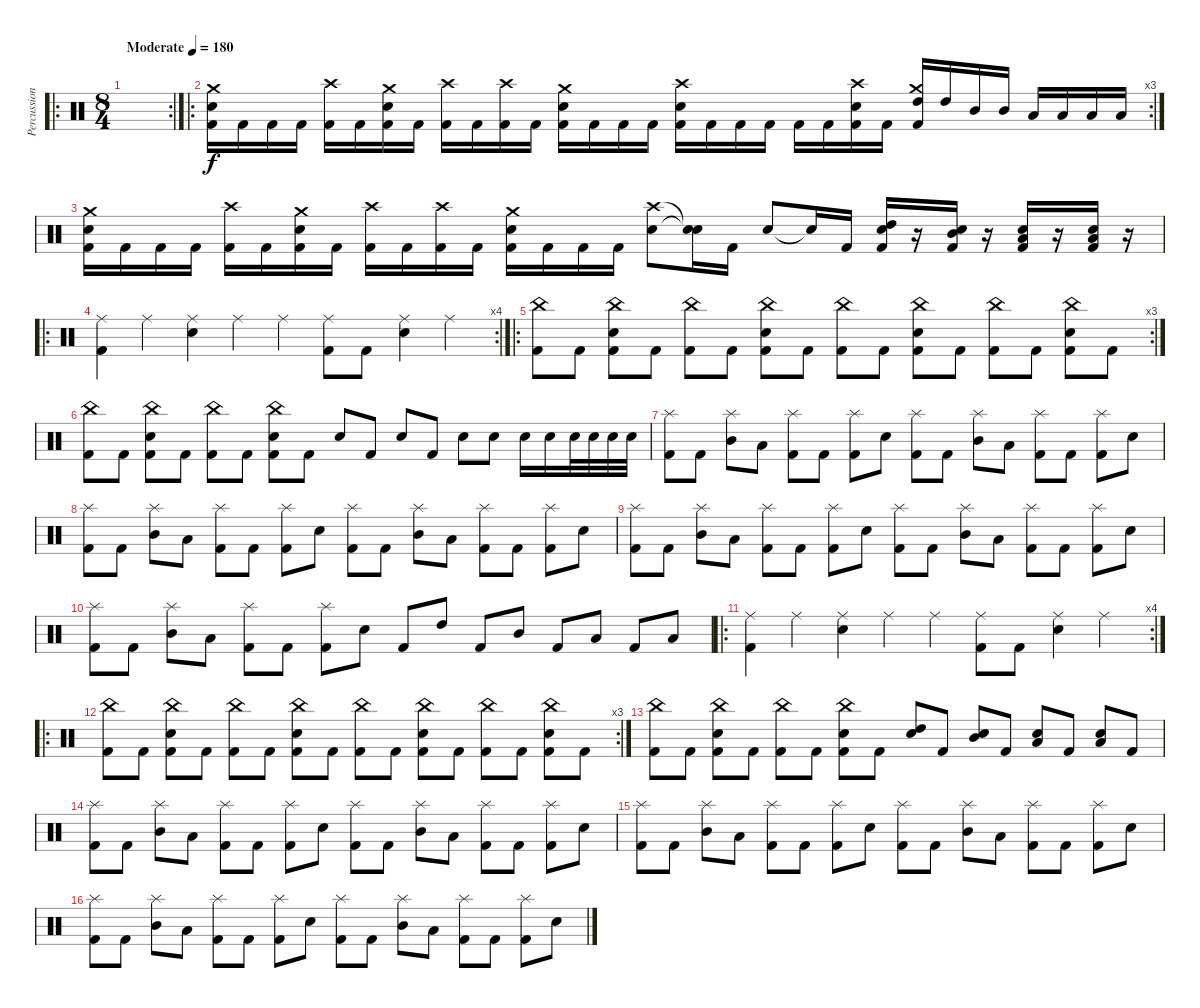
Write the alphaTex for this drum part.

\track ("Percussion" "Percussion") {instrument percussion}
\staff {score}
\articulation defaults
\ro
\rc 2
\ts (8 4)
\tempo (180 "Moderate")
\clef neutral
\ks c
|
\ro
\rc 3
("Kick (hit) 2" "Electric Snare (hit)" "Crash medium (hit)").16 "Kick (hit) 2".16 "Kick (hit) 2".16 "Kick (hit) 2".16 ("Kick (hit) 2" "Crash high (hit)").16 "Kick (hit) 2".16 ("Kick (hit) 2" "Electric Snare (hit)" "Crash medium (hit)").16 "Kick (hit) 2".16 ("Kick (hit) 2" "Crash high (hit)").16 "Kick (hit) 2".16 ("Kick (hit) 2" "Crash high (hit)").16 "Kick (hit) 2".16 ("Kick (hit) 2" "Electric Snare (hit)" "Crash medium (hit)").16 "Kick (hit) 2".16 "Kick (hit) 2".16 "Kick (hit) 2".16 ("Kick (hit) 2" "Electric Snare (hit)" "Crash high (hit)").16 "Kick (hit) 2".16 "Kick (hit) 2".16 "Kick (hit) 2".16 "Kick (hit) 2".16 "Kick (hit) 2".16 ("Kick (hit) 2" "Electric Snare (hit)" "Crash high (hit)").16 "Kick (hit) 2".16 ("Kick (hit) 2" "High Tom (hit)" "Crash medium (hit)").16 "High Tom (hit)".16 "Mid Tom (hit)".16 "Mid Tom (hit)".16 "Low Tom (hit)".16 "Low Tom (hit)".16 "Low Floor Tom (hit)".16 "Low Floor Tom (hit)".16 |
("Kick (hit) 2" "Electric Snare (hit)" "Crash medium (hit)").16 "Kick (hit) 2".16 "Kick (hit) 2".16 "Kick (hit) 2".16 ("Kick (hit) 2" "Crash high (hit)").16 "Kick (hit) 2".16 ("Kick (hit) 2" "Electric Snare (hit)" "Crash medium (hit)").16 "Kick (hit) 2".16 ("Kick (hit) 2" "Crash high (hit)").16 "Kick (hit) 2".16 ("Kick (hit) 2" "Crash high (hit)").16 "Kick (hit) 2".16 ("Kick (hit) 2" "Electric Snare (hit)" "Crash medium (hit)").16 "Kick (hit) 2".16 "Kick (hit) 2".16 "Kick (hit) 2".16 ("Electric Snare (hit)" "Crash high (hit)").8 ("Snare (hit)"{t} "Snare (hit)"{t}).16 "Kick (hit) 2".16 "Electric Snare (hit)".8 "Snare (hit)"{t}.16 "Kick (hit) 2".16 ("Kick (hit) 2" "Electric Snare (hit)" "High Tom (hit)").16 r.16 ("Kick (hit) 2" "Electric Snare (hit)" "Mid Tom (hit)").16 r.16 ("Kick (hit) 2" "Electric Snare (hit)" "Low Tom (hit)").16 r.16 ("Kick (hit) 2" "Electric Snare (hit)" "Low Floor Tom (hit)").16 r.16 |
\ro
\rc 4
("Kick (hit) 2" "Ride (middle)").4 "Ride (middle)".4 ("Electric Snare (hit)" "Ride (middle)").4 "Ride (middle)".4 "Ride (middle)".4 ("Kick (hit) 2" "Ride (middle)").8 "Kick (hit) 2".8 ("Electric Snare (hit)" "Ride (middle)").4 "Ride (middle)".4 |
\ro
\rc 3
("Kick (hit) 2" "China (hit)").8 "Kick (hit) 2".8 ("Kick (hit) 2" "Electric Snare (hit)" "China (hit)").8 "Kick (hit) 2".8 ("Kick (hit) 2" "China (hit)").8 "Kick (hit) 2".8 ("Kick (hit) 2" "Electric Snare (hit)" "China (hit)").8 "Kick (hit) 2".8 ("Kick (hit) 2" "China (hit)").8 "Kick (hit) 2".8 ("Kick (hit) 2" "Electric Snare (hit)" "China (hit)").8 "Kick (hit) 2".8 ("Kick (hit) 2" "China (hit)").8 "Kick (hit) 2".8 ("Kick (hit) 2" "Electric Snare (hit)" "China (hit)").8 "Kick (hit) 2".8 |
("Kick (hit) 2" "China (hit)").8 "Kick (hit) 2".8 ("Kick (hit) 2" "Electric Snare (hit)" "China (hit)").8 "Kick (hit) 2".8 ("Kick (hit) 2" "China (hit)").8 "Kick (hit) 2".8 ("Kick (hit) 2" "Electric Snare (hit)" "China (hit)").8 "Kick (hit) 2".8 "Electric Snare (hit)".8 "Kick (hit) 2".8 "Electric Snare (hit)".8 "Kick (hit) 2".8 "Electric Snare (hit)".8 "Electric Snare (hit)".8 "Electric Snare (hit)".16 "Electric Snare (hit)".16 "Electric Snare (hit)".32 "Electric Snare (hit)".32 "Electric Snare (hit)".32 "Electric Snare (hit)".32 |
("Kick (hit) 2" "Splash (hit)").8 "Kick (hit) 2".8 ("Mid Tom (hit)" "Splash (hit)").8 "Low Tom (hit)".8 ("Kick (hit) 2" "Splash (hit)").8 "Kick (hit) 2".8 ("Kick (hit) 2" "Splash (hit)").8 "Electric Snare (hit)".8 ("Kick (hit) 2" "Splash (hit)").8 "Kick (hit) 2".8 ("Mid Tom (hit)" "Splash (hit)").8 "Low Tom (hit)".8 ("Kick (hit) 2" "Splash (hit)").8 "Kick (hit) 2".8 ("Kick (hit) 2" "Splash (hit)").8 "Electric Snare (hit)".8 |
("Kick (hit) 2" "Splash (hit)").8 "Kick (hit) 2".8 ("Mid Tom (hit)" "Splash (hit)").8 "Low Tom (hit)".8 ("Kick (hit) 2" "Splash (hit)").8 "Kick (hit) 2".8 ("Kick (hit) 2" "Splash (hit)").8 "Electric Snare (hit)".8 ("Kick (hit) 2" "Splash (hit)").8 "Kick (hit) 2".8 ("Mid Tom (hit)" "Splash (hit)").8 "Low Tom (hit)".8 ("Kick (hit) 2" "Splash (hit)").8 "Kick (hit) 2".8 ("Kick (hit) 2" "Splash (hit)").8 "Electric Snare (hit)".8 |
("Kick (hit) 2" "Splash (hit)").8 "Kick (hit) 2".8 ("Mid Tom (hit)" "Splash (hit)").8 "Low Tom (hit)".8 ("Kick (hit) 2" "Splash (hit)").8 "Kick (hit) 2".8 ("Kick (hit) 2" "Splash (hit)").8 "Electric Snare (hit)".8 ("Kick (hit) 2" "Splash (hit)").8 "Kick (hit) 2".8 ("Mid Tom (hit)" "Splash (hit)").8 "Low Tom (hit)".8 ("Kick (hit) 2" "Splash (hit)").8 "Kick (hit) 2".8 ("Kick (hit) 2" "Splash (hit)").8 "Electric Snare (hit)".8 |
("Kick (hit) 2" "Splash (hit)").8 "Kick (hit) 2".8 ("Mid Tom (hit)" "Splash (hit)").8 "Low Tom (hit)".8 ("Kick (hit) 2" "Splash (hit)").8 "Kick (hit) 2".8 ("Kick (hit) 2" "Splash (hit)").8 "Electric Snare (hit)".8 "Kick (hit) 2".8 "High Tom (hit)".8 "Kick (hit) 2".8 "Mid Tom (hit)".8 "Kick (hit) 2".8 "Low Tom (hit)".8 "Kick (hit) 2".8 "Low Floor Tom (hit)".8 |
\ro
\rc 4
("Kick (hit) 2" "Ride (middle)").4 "Ride (middle)".4 ("Electric Snare (hit)" "Ride (middle)").4 "Ride (middle)".4 "Ride (middle)".4 ("Kick (hit) 2" "Ride (middle)").8 "Kick (hit) 2".8 ("Electric Snare (hit)" "Ride (middle)").4 "Ride (middle)".4 |
\ro
\rc 3
("Kick (hit) 2" "China (hit)").8 "Kick (hit) 2".8 ("Kick (hit) 2" "Electric Snare (hit)" "China (hit)").8 "Kick (hit) 2".8 ("Kick (hit) 2" "China (hit)").8 "Kick (hit) 2".8 ("Kick (hit) 2" "Electric Snare (hit)" "China (hit)").8 "Kick (hit) 2".8 ("Kick (hit) 2" "China (hit)").8 "Kick (hit) 2".8 ("Kick (hit) 2" "Electric Snare (hit)" "China (hit)").8 "Kick (hit) 2".8 ("Kick (hit) 2" "China (hit)").8 "Kick (hit) 2".8 ("Kick (hit) 2" "Electric Snare (hit)" "China (hit)").8 "Kick (hit) 2".8 |
("Kick (hit) 2" "China (hit)").8 "Kick (hit) 2".8 ("Kick (hit) 2" "Electric Snare (hit)" "China (hit)").8 "Kick (hit) 2".8 ("Kick (hit) 2" "China (hit)").8 "Kick (hit) 2".8 ("Kick (hit) 2" "Electric Snare (hit)" "China (hit)").8 "Kick (hit) 2".8 ("Electric Snare (hit)" "High Tom (hit)").8 "Kick (hit) 2".8 ("Electric Snare (hit)" "Mid Tom (hit)").8 "Kick (hit) 2".8 ("Electric Snare (hit)" "Low Tom (hit)").8 "Kick (hit) 2".8 ("Electric Snare (hit)" "Low Floor Tom (hit)").8 "Kick (hit) 2".8 |
("Kick (hit) 2" "Splash (hit)").8 "Kick (hit) 2".8 ("Mid Tom (hit)" "Splash (hit)").8 "Low Tom (hit)".8 ("Kick (hit) 2" "Splash (hit)").8 "Kick (hit) 2".8 ("Kick (hit) 2" "Splash (hit)").8 "Electric Snare (hit)".8 ("Kick (hit) 2" "Splash (hit)").8 "Kick (hit) 2".8 ("Mid Tom (hit)" "Splash (hit)").8 "Low Tom (hit)".8 ("Kick (hit) 2" "Splash (hit)").8 "Kick (hit) 2".8 ("Kick (hit) 2" "Splash (hit)").8 "Electric Snare (hit)".8 |
("Kick (hit) 2" "Splash (hit)").8 "Kick (hit) 2".8 ("Mid Tom (hit)" "Splash (hit)").8 "Low Tom (hit)".8 ("Kick (hit) 2" "Splash (hit)").8 "Kick (hit) 2".8 ("Kick (hit) 2" "Splash (hit)").8 "Electric Snare (hit)".8 ("Kick (hit) 2" "Splash (hit)").8 "Kick (hit) 2".8 ("Mid Tom (hit)" "Splash (hit)").8 "Low Tom (hit)".8 ("Kick (hit) 2" "Splash (hit)").8 "Kick (hit) 2".8 ("Kick (hit) 2" "Splash (hit)").8 "Electric Snare (hit)".8 |
("Kick (hit) 2" "Splash (hit)").8 "Kick (hit) 2".8 ("Mid Tom (hit)" "Splash (hit)").8 "Low Tom (hit)".8 ("Kick (hit) 2" "Splash (hit)").8 "Kick (hit) 2".8 ("Kick (hit) 2" "Splash (hit)").8 "Electric Snare (hit)".8 ("Kick (hit) 2" "Splash (hit)").8 "Kick (hit) 2".8 ("Mid Tom (hit)" "Splash (hit)").8 "Low Tom (hit)".8 ("Kick (hit) 2" "Splash (hit)").8 "Kick (hit) 2".8 ("Kick (hit) 2" "Splash (hit)").8 "Electric Snare (hit)".8
